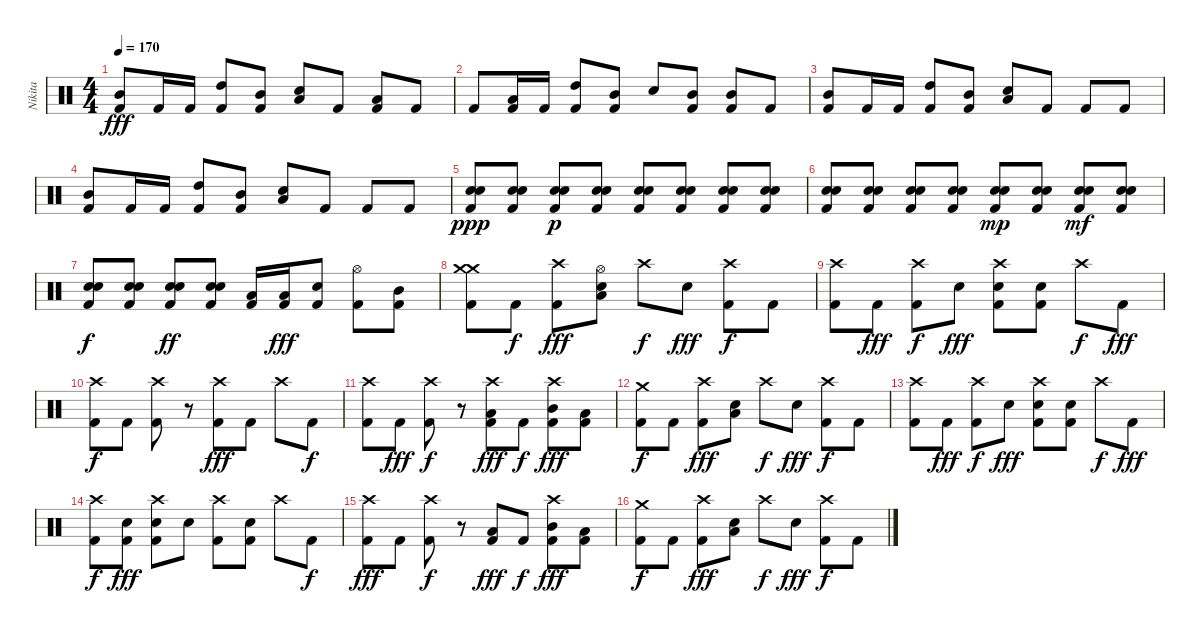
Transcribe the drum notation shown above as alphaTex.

\track ("Nikita" "Nikita") {instrument percussion}
\staff {score}
\articulation defaults
\ts (4 4)
\tempo 170
\clef neutral
\ks c
("Mid Tom (hit)" "Kick (hit) 2").8{dy fff} "Kick (hit) 2".16 "Kick (hit) 2".16 ("High Tom (hit)" "Kick (hit) 2").8 ("Mid Tom (hit)" "Kick (hit) 2").8 ("Low Tom (hit)" "Electric Snare (hit)").8 "Kick (hit) 2".8 ("Low Tom (hit)" "Kick (hit) 2").8 "Kick (hit) 2".8 |
"Kick (hit) 2".8 ("Low Tom (hit)" "Kick (hit) 2").16 "Kick (hit) 2".16 ("High Tom (hit)" "Kick (hit) 2").8 ("Mid Tom (hit)" "Kick (hit) 2").8 "Electric Snare (hit)".8 ("Mid Tom (hit)" "Kick (hit) 2").8 ("Mid Tom (hit)" "Kick (hit) 2").8 "Kick (hit) 2".8 |
("Mid Tom (hit)" "Kick (hit) 2").8 "Kick (hit) 2".16 "Kick (hit) 2".16 ("High Tom (hit)" "Kick (hit) 2").8 ("Mid Tom (hit)" "Kick (hit) 2").8 ("Low Tom (hit)" "Electric Snare (hit)").8 "Kick (hit) 2".8 "Kick (hit) 2".8 "Kick (hit) 2".8 |
("Mid Tom (hit)" "Kick (hit) 2").8 "Kick (hit) 2".16 "Kick (hit) 2".16 ("High Tom (hit)" "Kick (hit) 2").8 ("Mid Tom (hit)" "Kick (hit) 2").8 ("Low Tom (hit)" "Electric Snare (hit)").8 "Kick (hit) 2".8 "Kick (hit) 2".8 "Kick (hit) 2".8 |
("Electric Snare (hit)" "Electric Snare (hit)" "Kick (hit) 2").8{dy ppp} ("Electric Snare (hit)" "Electric Snare (hit)" "Kick (hit) 2").8 ("Electric Snare (hit)" "Electric Snare (hit)" "Kick (hit) 2").8{dy p} ("Electric Snare (hit)" "Electric Snare (hit)" "Kick (hit) 2").8 ("Electric Snare (hit)" "Electric Snare (hit)" "Kick (hit) 2").8 ("Electric Snare (hit)" "Electric Snare (hit)" "Kick (hit) 2").8 ("Electric Snare (hit)" "Electric Snare (hit)" "Kick (hit) 2").8 ("Electric Snare (hit)" "Electric Snare (hit)" "Kick (hit) 2").8 |
("Electric Snare (hit)" "Electric Snare (hit)" "Kick (hit) 2").8 ("Electric Snare (hit)" "Electric Snare (hit)" "Kick (hit) 2").8 ("Electric Snare (hit)" "Electric Snare (hit)" "Kick (hit) 2").8 ("Electric Snare (hit)" "Electric Snare (hit)" "Kick (hit) 2").8 ("Electric Snare (hit)" "Electric Snare (hit)" "Kick (hit) 2").8{dy mp} ("Electric Snare (hit)" "Electric Snare (hit)" "Kick (hit) 2").8 ("Electric Snare (hit)" "Electric Snare (hit)" "Kick (hit) 2").8{dy mf} ("Electric Snare (hit)" "Electric Snare (hit)" "Kick (hit) 2").8 |
("Electric Snare (hit)" "Electric Snare (hit)" "Kick (hit) 2").8{dy f} ("Electric Snare (hit)" "Electric Snare (hit)" "Kick (hit) 2").8 ("Electric Snare (hit)" "Electric Snare (hit)" "Kick (hit) 2").8{dy ff} ("Electric Snare (hit)" "Electric Snare (hit)" "Kick (hit) 2").8 ("Low Tom (hit)" "Kick (hit) 2").16 ("Low Tom (hit)" "Kick (hit) 2").16{dy fff} ("Electric Snare (hit)" "Kick (hit) 2").8 ("Hi-Hat (open)" "Kick (hit) 2").8 ("Mid Tom (hit)" "Kick (hit) 2").8 |
("Crash medium (hit)" "Crash medium (hit)" "Kick (hit) 2").8 "Kick (hit) 2".8{dy f} ("Crash high (hit)" "Kick (hit) 2").8{dy fff} ("Hi-Hat (open)" "Low Tom (hit)" "Electric Snare (hit)").8 "Crash high (hit)".8{dy f} "Electric Snare (hit)".8{dy fff} ("Crash high (hit)" "Kick (hit) 2").8{dy f} "Kick (hit) 2".8 |
("Crash high (hit)" "Kick (hit) 2").8 "Kick (hit) 2".8{dy fff} ("Crash high (hit)" "Kick (hit) 2").8{dy f} "Electric Snare (hit)".8{dy fff} ("Crash high (hit)" "Electric Snare (hit)" "Kick (hit) 2").8 ("Electric Snare (hit)" "Kick (hit) 2").8 "Crash high (hit)".8{dy f} "Kick (hit) 2".8{dy fff} |
("Crash high (hit)" "Kick (hit) 2").8{dy f} "Kick (hit) 2".8 ("Crash high (hit)" "Kick (hit) 2").8 r.8 ("Crash high (hit)" "Kick (hit) 2").8{dy fff} "Kick (hit) 2".8 "Crash high (hit)".8 "Kick (hit) 2".8{dy f} |
("Crash high (hit)" "Kick (hit) 2").8 "Kick (hit) 2".8{dy fff} ("Crash high (hit)" "Kick (hit) 2").8{dy f} r.8 ("Crash high (hit)" "Low Tom (hit)" "Kick (hit) 2").8{dy fff} "Kick (hit) 2".8{dy f} ("Crash high (hit)" "Mid Tom (hit)" "Kick (hit) 2").8{dy fff} ("Low Tom (hit)" "Kick (hit) 2").8 |
("Crash medium (hit)" "Kick (hit) 2").8{dy f} "Kick (hit) 2".8 ("Crash high (hit)" "Kick (hit) 2").8{dy fff} ("Low Tom (hit)" "Electric Snare (hit)").8 "Crash high (hit)".8{dy f} "Electric Snare (hit)".8{dy fff} ("Crash high (hit)" "Kick (hit) 2").8{dy f} "Kick (hit) 2".8 |
("Crash high (hit)" "Kick (hit) 2").8 "Kick (hit) 2".8{dy fff} ("Crash high (hit)" "Kick (hit) 2").8{dy f} "Electric Snare (hit)".8{dy fff} ("Crash high (hit)" "Electric Snare (hit)" "Kick (hit) 2").8 ("Electric Snare (hit)" "Kick (hit) 2").8 "Crash high (hit)".8{dy f} "Kick (hit) 2".8{dy fff} |
("Crash high (hit)" "Kick (hit) 2").8{dy f} ("Electric Snare (hit)" "Kick (hit) 2").8{dy fff} ("Crash high (hit)" "Electric Snare (hit)" "Kick (hit) 2").8 "Electric Snare (hit)".8 ("Crash high (hit)" "Kick (hit) 2").8 ("Electric Snare (hit)" "Kick (hit) 2").8 "Crash high (hit)".8 "Kick (hit) 2".8{dy f} |
("Crash high (hit)" "Kick (hit) 2").8{dy fff} "Kick (hit) 2".8 ("Crash high (hit)" "Kick (hit) 2").8{dy f} r.8 ("Low Tom (hit)" "Kick (hit) 2").8{dy fff} "Kick (hit) 2".8{dy f} ("Crash high (hit)" "Mid Tom (hit)" "Kick (hit) 2").8{dy fff} ("Low Tom (hit)" "Kick (hit) 2").8 |
("Crash medium (hit)" "Kick (hit) 2").8{dy f} "Kick (hit) 2".8 ("Crash high (hit)" "Kick (hit) 2").8{dy fff} ("Low Tom (hit)" "Electric Snare (hit)").8 "Crash high (hit)".8{dy f} "Electric Snare (hit)".8{dy fff} ("Crash high (hit)" "Kick (hit) 2").8{dy f} "Kick (hit) 2".8
